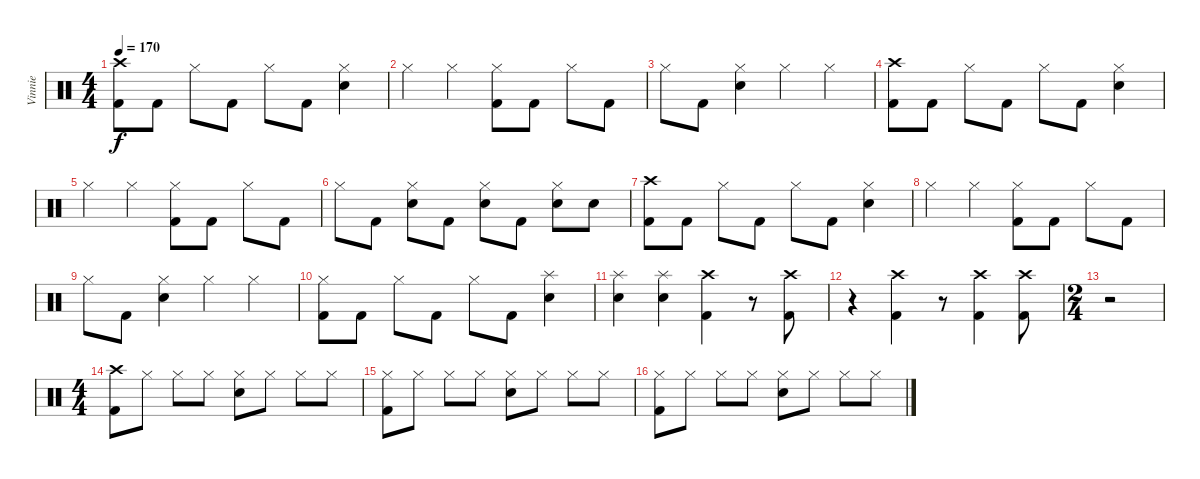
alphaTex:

\track ("Vinnie" "Vinnie") {instrument percussion}
\staff {score}
\articulation defaults
\ts (4 4)
\tempo 170
\clef neutral
\ks c
("Crash high (hit)" "Kick (hit) 2").8{dy f} "Kick (hit) 2".8 "Hi-Hat (closed)".8 "Kick (hit) 2".8 "Hi-Hat (closed)".8 "Kick (hit) 2".8 ("Hi-Hat (closed)" "Electric Snare (hit)").4 |
"Hi-Hat (closed)".4 "Hi-Hat (closed)".4 ("Hi-Hat (closed)" "Kick (hit) 2").8 "Kick (hit) 2".8 "Hi-Hat (closed)".8 "Kick (hit) 2".8 |
"Hi-Hat (closed)".8 "Kick (hit) 2".8 ("Hi-Hat (closed)" "Electric Snare (hit)").4 "Hi-Hat (closed)".4 "Hi-Hat (closed)".4 |
("Crash high (hit)" "Kick (hit) 2").8 "Kick (hit) 2".8 "Hi-Hat (closed)".8 "Kick (hit) 2".8 "Hi-Hat (closed)".8 "Kick (hit) 2".8 ("Hi-Hat (closed)" "Electric Snare (hit)").4 |
"Hi-Hat (closed)".4 "Hi-Hat (closed)".4 ("Hi-Hat (closed)" "Kick (hit) 2").8 "Kick (hit) 2".8 "Hi-Hat (closed)".8 "Kick (hit) 2".8 |
"Hi-Hat (closed)".8 "Kick (hit) 2".8 ("Hi-Hat (closed)" "Electric Snare (hit)").8 "Kick (hit) 2".8 ("Hi-Hat (closed)" "Electric Snare (hit)").8 "Kick (hit) 2".8 ("Hi-Hat (closed)" "Electric Snare (hit)").8 "Electric Snare (hit)".8 |
("Crash high (hit)" "Kick (hit) 2").8 "Kick (hit) 2".8 "Hi-Hat (closed)".8 "Kick (hit) 2".8 "Hi-Hat (closed)".8 "Kick (hit) 2".8 ("Hi-Hat (closed)" "Electric Snare (hit)").4 |
"Hi-Hat (closed)".4 "Hi-Hat (closed)".4 ("Hi-Hat (closed)" "Kick (hit) 2").8 "Kick (hit) 2".8 "Hi-Hat (closed)".8 "Kick (hit) 2".8 |
"Hi-Hat (closed)".8 "Kick (hit) 2".8 ("Hi-Hat (closed)" "Electric Snare (hit)").4 "Hi-Hat (closed)".4 "Hi-Hat (closed)".4 |
("Hi-Hat (closed)" "Kick (hit) 2").8 "Kick (hit) 2".8 "Hi-Hat (closed)".8 "Kick (hit) 2".8 "Hi-Hat (closed)".8 "Kick (hit) 2".8 ("Splash (hit)" "Electric Snare (hit)").4 |
("Splash (hit)" "Electric Snare (hit)").4 ("Splash (hit)" "Electric Snare (hit)").4 ("Crash high (hit)" "Kick (hit) 2").4 r.8 ("Crash high (hit)" "Kick (hit) 2").8 |
r.4 ("Crash high (hit)" "Kick (hit) 2").4 r.8 ("Crash high (hit)" "Kick (hit) 2").4 ("Crash high (hit)" "Kick (hit) 2").8 |
\ts (2 4)
r.2 |
\ts (4 4)
("Crash high (hit)" "Kick (hit) 2").8 "Hi-Hat (closed)".8 "Hi-Hat (closed)".8 "Hi-Hat (closed)".8 ("Hi-Hat (closed)" "Electric Snare (hit)").8 "Hi-Hat (closed)".8 "Hi-Hat (closed)".8 "Hi-Hat (closed)".8 |
("Hi-Hat (closed)" "Kick (hit) 2").8 "Hi-Hat (closed)".8 "Hi-Hat (closed)".8 "Hi-Hat (closed)".8 ("Hi-Hat (closed)" "Electric Snare (hit)").8 "Hi-Hat (closed)".8 "Hi-Hat (closed)".8 "Hi-Hat (closed)".8 |
("Hi-Hat (closed)" "Kick (hit) 2").8 "Hi-Hat (closed)".8 "Hi-Hat (closed)".8 "Hi-Hat (closed)".8 ("Hi-Hat (closed)" "Electric Snare (hit)").8 "Hi-Hat (closed)".8 "Hi-Hat (closed)".8 "Hi-Hat (closed)".8
